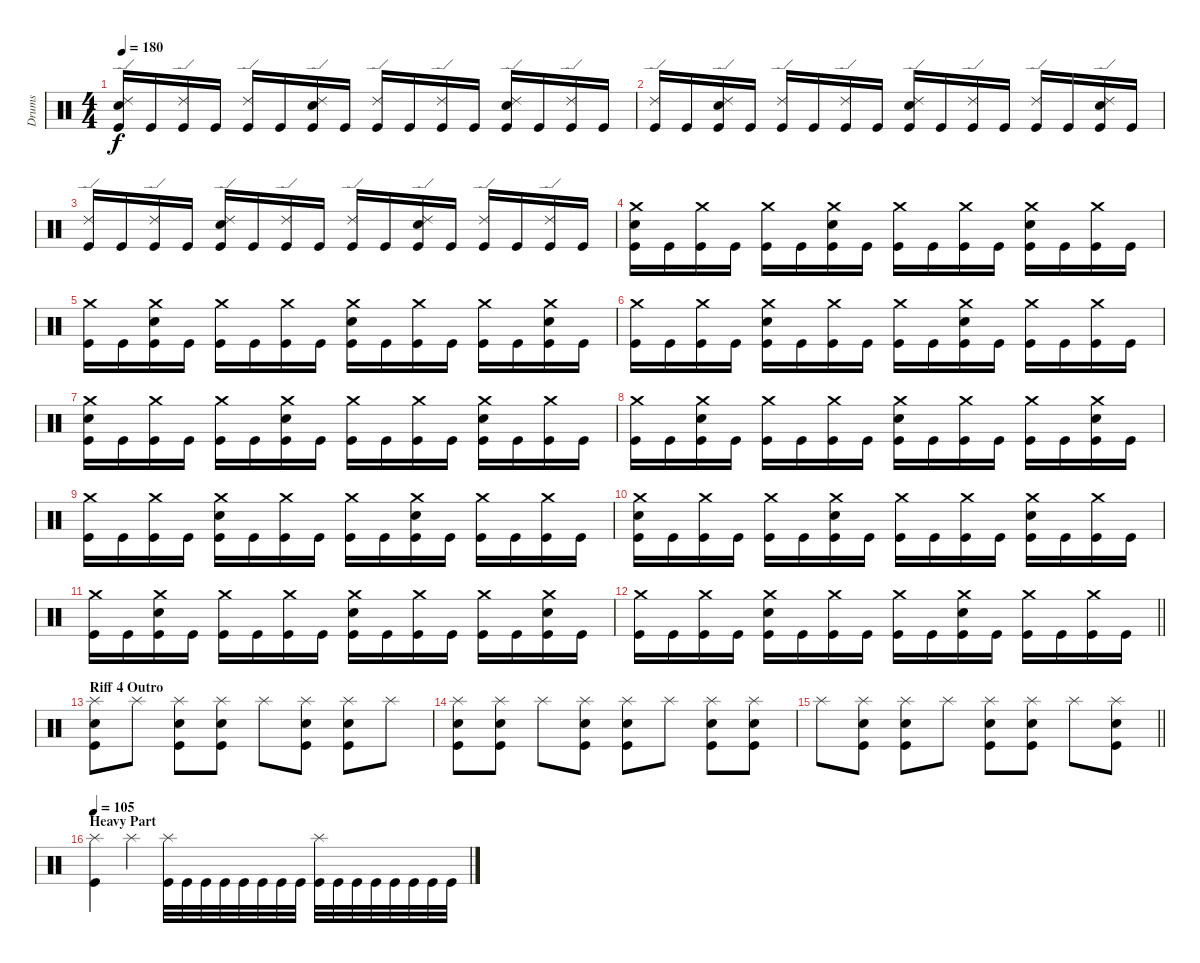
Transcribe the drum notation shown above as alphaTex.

\track ("Drums" "Drums") {instrument percussion}
\staff {score}
\articulation defaults
\ts (4 4)
\tempo 180
\clef neutral
\ks c
("Ride (edge) 2" "Electric Snare (hit)" "Kick (hit)").16{dy f} "Kick (hit)".16 ("Ride (edge) 2" "Kick (hit)").16 "Kick (hit)".16 ("Ride (edge) 2" "Kick (hit)").16 "Kick (hit)".16 ("Ride (edge) 2" "Electric Snare (hit)" "Kick (hit)").16 "Kick (hit)".16 ("Ride (edge) 2" "Kick (hit)").16 "Kick (hit)".16 ("Ride (edge) 2" "Kick (hit)").16 "Kick (hit)".16 ("Ride (edge) 2" "Electric Snare (hit)" "Kick (hit)").16 "Kick (hit)".16 ("Ride (edge) 2" "Kick (hit)").16 "Kick (hit)".16 |
("Ride (edge) 2" "Kick (hit)").16 "Kick (hit)".16 ("Ride (edge) 2" "Electric Snare (hit)" "Kick (hit)").16 "Kick (hit)".16 ("Ride (edge) 2" "Kick (hit)").16 "Kick (hit)".16 ("Ride (edge) 2" "Kick (hit)").16 "Kick (hit)".16 ("Ride (edge) 2" "Electric Snare (hit)" "Kick (hit)").16 "Kick (hit)".16 ("Ride (edge) 2" "Kick (hit)").16 "Kick (hit)".16 ("Ride (edge) 2" "Kick (hit)").16 "Kick (hit)".16 ("Ride (edge) 2" "Electric Snare (hit)" "Kick (hit)").16 "Kick (hit)".16 |
("Ride (edge) 2" "Kick (hit)").16 "Kick (hit)".16 ("Ride (edge) 2" "Kick (hit)").16 "Kick (hit)".16 ("Ride (edge) 2" "Electric Snare (hit)" "Kick (hit)").16 "Kick (hit)".16 ("Ride (edge) 2" "Kick (hit)").16 "Kick (hit)".16 ("Ride (edge) 2" "Kick (hit)").16 "Kick (hit)".16 ("Ride (edge) 2" "Electric Snare (hit)" "Kick (hit)").16 "Kick (hit)".16 ("Ride (edge) 2" "Kick (hit)").16 "Kick (hit)".16 ("Ride (edge) 2" "Kick (hit)").16 "Kick (hit)".16 |
("Crash medium (hit)" "Electric Snare (hit)" "Kick (hit)").16 "Kick (hit)".16 ("Crash medium (hit)" "Kick (hit)").16 "Kick (hit)".16 ("Crash medium (hit)" "Kick (hit)").16 "Kick (hit)".16 ("Crash medium (hit)" "Electric Snare (hit)" "Kick (hit)").16 "Kick (hit)".16 ("Crash medium (hit)" "Kick (hit)").16 "Kick (hit)".16 ("Crash medium (hit)" "Kick (hit)").16 "Kick (hit)".16 ("Crash medium (hit)" "Electric Snare (hit)" "Kick (hit)").16 "Kick (hit)".16 ("Crash medium (hit)" "Kick (hit)").16 "Kick (hit)".16 |
("Crash medium (hit)" "Kick (hit)").16 "Kick (hit)".16 ("Crash medium (hit)" "Electric Snare (hit)" "Kick (hit)").16 "Kick (hit)".16 ("Crash medium (hit)" "Kick (hit)").16 "Kick (hit)".16 ("Crash medium (hit)" "Kick (hit)").16 "Kick (hit)".16 ("Crash medium (hit)" "Electric Snare (hit)" "Kick (hit)").16 "Kick (hit)".16 ("Crash medium (hit)" "Kick (hit)").16 "Kick (hit)".16 ("Crash medium (hit)" "Kick (hit)").16 "Kick (hit)".16 ("Crash medium (hit)" "Electric Snare (hit)" "Kick (hit)").16 "Kick (hit)".16 |
("Crash medium (hit)" "Kick (hit)").16 "Kick (hit)".16 ("Crash medium (hit)" "Kick (hit)").16 "Kick (hit)".16 ("Crash medium (hit)" "Electric Snare (hit)" "Kick (hit)").16 "Kick (hit)".16 ("Crash medium (hit)" "Kick (hit)").16 "Kick (hit)".16 ("Crash medium (hit)" "Kick (hit)").16 "Kick (hit)".16 ("Crash medium (hit)" "Electric Snare (hit)" "Kick (hit)").16 "Kick (hit)".16 ("Crash medium (hit)" "Kick (hit)").16 "Kick (hit)".16 ("Crash medium (hit)" "Kick (hit)").16 "Kick (hit)".16 |
("Crash medium (hit)" "Electric Snare (hit)" "Kick (hit)").16 "Kick (hit)".16 ("Crash medium (hit)" "Kick (hit)").16 "Kick (hit)".16 ("Crash medium (hit)" "Kick (hit)").16 "Kick (hit)".16 ("Crash medium (hit)" "Electric Snare (hit)" "Kick (hit)").16 "Kick (hit)".16 ("Crash medium (hit)" "Kick (hit)").16 "Kick (hit)".16 ("Crash medium (hit)" "Kick (hit)").16 "Kick (hit)".16 ("Crash medium (hit)" "Electric Snare (hit)" "Kick (hit)").16 "Kick (hit)".16 ("Crash medium (hit)" "Kick (hit)").16 "Kick (hit)".16 |
("Crash medium (hit)" "Kick (hit)").16 "Kick (hit)".16 ("Crash medium (hit)" "Electric Snare (hit)" "Kick (hit)").16 "Kick (hit)".16 ("Crash medium (hit)" "Kick (hit)").16 "Kick (hit)".16 ("Crash medium (hit)" "Kick (hit)").16 "Kick (hit)".16 ("Crash medium (hit)" "Electric Snare (hit)" "Kick (hit)").16 "Kick (hit)".16 ("Crash medium (hit)" "Kick (hit)").16 "Kick (hit)".16 ("Crash medium (hit)" "Kick (hit)").16 "Kick (hit)".16 ("Crash medium (hit)" "Electric Snare (hit)" "Kick (hit)").16 "Kick (hit)".16 |
("Crash medium (hit)" "Kick (hit)").16 "Kick (hit)".16 ("Crash medium (hit)" "Kick (hit)").16 "Kick (hit)".16 ("Crash medium (hit)" "Electric Snare (hit)" "Kick (hit)").16 "Kick (hit)".16 ("Crash medium (hit)" "Kick (hit)").16 "Kick (hit)".16 ("Crash medium (hit)" "Kick (hit)").16 "Kick (hit)".16 ("Crash medium (hit)" "Electric Snare (hit)" "Kick (hit)").16 "Kick (hit)".16 ("Crash medium (hit)" "Kick (hit)").16 "Kick (hit)".16 ("Crash medium (hit)" "Kick (hit)").16 "Kick (hit)".16 |
("Crash medium (hit)" "Electric Snare (hit)" "Kick (hit)").16 "Kick (hit)".16 ("Crash medium (hit)" "Kick (hit)").16 "Kick (hit)".16 ("Crash medium (hit)" "Kick (hit)").16 "Kick (hit)".16 ("Crash medium (hit)" "Electric Snare (hit)" "Kick (hit)").16 "Kick (hit)".16 ("Crash medium (hit)" "Kick (hit)").16 "Kick (hit)".16 ("Crash medium (hit)" "Kick (hit)").16 "Kick (hit)".16 ("Crash medium (hit)" "Electric Snare (hit)" "Kick (hit)").16 "Kick (hit)".16 ("Crash medium (hit)" "Kick (hit)").16 "Kick (hit)".16 |
("Crash medium (hit)" "Kick (hit)").16 "Kick (hit)".16 ("Crash medium (hit)" "Electric Snare (hit)" "Kick (hit)").16 "Kick (hit)".16 ("Crash medium (hit)" "Kick (hit)").16 "Kick (hit)".16 ("Crash medium (hit)" "Kick (hit)").16 "Kick (hit)".16 ("Crash medium (hit)" "Electric Snare (hit)" "Kick (hit)").16 "Kick (hit)".16 ("Crash medium (hit)" "Kick (hit)").16 "Kick (hit)".16 ("Crash medium (hit)" "Kick (hit)").16 "Kick (hit)".16 ("Crash medium (hit)" "Electric Snare (hit)" "Kick (hit)").16 "Kick (hit)".16 |
\barLineRight lightlight
("Crash medium (hit)" "Kick (hit)").16 "Kick (hit)".16 ("Crash medium (hit)" "Kick (hit)").16 "Kick (hit)".16 ("Crash medium (hit)" "Electric Snare (hit)" "Kick (hit)").16 "Kick (hit)".16 ("Crash medium (hit)" "Kick (hit)").16 "Kick (hit)".16 ("Crash medium (hit)" "Kick (hit)").16 "Kick (hit)".16 ("Crash medium (hit)" "Electric Snare (hit)" "Kick (hit)").16 "Kick (hit)".16 ("Crash medium (hit)" "Kick (hit)").16 "Kick (hit)".16 ("Crash medium (hit)" "Kick (hit)").16 "Kick (hit)".16 |
\section ("" "Riff 4 Outro")
("Splash (hit)" "Electric Snare (hit)" "Kick (hit)").8 "Splash (hit)".8 ("Splash (hit)" "Electric Snare (hit)" "Kick (hit)").8 ("Splash (hit)" "Electric Snare (hit)" "Kick (hit)").8 "Splash (hit)".8 ("Splash (hit)" "Electric Snare (hit)" "Kick (hit)").8 ("Splash (hit)" "Electric Snare (hit)" "Kick (hit)").8 "Splash (hit)".8 |
("Splash (hit)" "Electric Snare (hit)" "Kick (hit)").8 ("Splash (hit)" "Electric Snare (hit)" "Kick (hit)").8 "Splash (hit)".8 ("Splash (hit)" "Electric Snare (hit)" "Kick (hit)").8 ("Splash (hit)" "Electric Snare (hit)" "Kick (hit)").8 "Splash (hit)".8 ("Splash (hit)" "Electric Snare (hit)" "Kick (hit)").8 ("Splash (hit)" "Electric Snare (hit)" "Kick (hit)").8 |
\barLineRight lightlight "Splash (hit)".8
("Splash (hit)" "Electric Snare (hit)" "Kick (hit)").8 ("Splash (hit)" "Electric Snare (hit)" "Kick (hit)").8 "Splash (hit)".8 ("Splash (hit)" "Electric Snare (hit)" "Kick (hit)").8 ("Splash (hit)" "Electric Snare (hit)" "Kick (hit)").8 "Splash (hit)".8 ("Splash (hit)" "Electric Snare (hit)" "Kick (hit)").8 |
\section ("" "Heavy Part")
\tempo 105
("Splash (hit)" "Kick (hit)").4 "Splash (hit)".4 ("Splash (hit)" "Kick (hit)").32 "Kick (hit)".32 "Kick (hit)".32 "Kick (hit)".32 "Kick (hit)".32 "Kick (hit)".32 "Kick (hit)".32 "Kick (hit)".32 ("Splash (hit)" "Kick (hit)").32 "Kick (hit)".32 "Kick (hit)".32 "Kick (hit)".32 "Kick (hit)".32 "Kick (hit)".32 "Kick (hit)".32 "Kick (hit)".32
